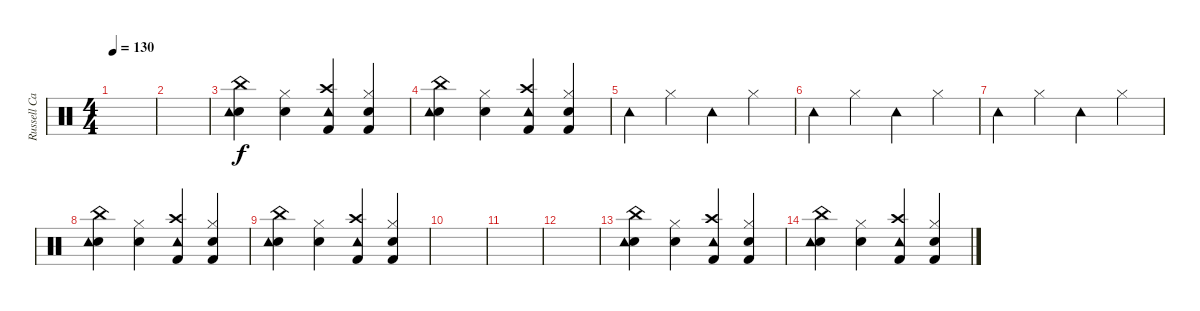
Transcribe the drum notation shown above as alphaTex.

\track ("Russell Cannon" "Russell Ca") {instrument percussion}
\staff {score}
\articulation defaults
\ts (4 4)
\tempo 130
\clef neutral
\ks c
|
|
("Electric Snare (hit)" "China (hit)" "Tambourine (hit)").4 ("Electric Snare (hit)" "Hi-Hat (closed)").4 ("Crash high (hit)" "Kick (hit) 2" "Tambourine (hit)").4 ("Electric Snare (hit)" "Kick (hit) 2" "Hi-Hat (closed)").4 |
("Electric Snare (hit)" "China (hit)" "Tambourine (hit)").4 ("Electric Snare (hit)" "Hi-Hat (closed)").4 ("Crash high (hit)" "Kick (hit) 2" "Tambourine (hit)").4 ("Electric Snare (hit)" "Kick (hit) 2" "Hi-Hat (closed)").4 |
"Tambourine (hit)".4 "Hi-Hat (closed)".4 "Tambourine (hit)".4 "Hi-Hat (closed)".4 |
"Tambourine (hit)".4 "Hi-Hat (closed)".4 "Tambourine (hit)".4 "Hi-Hat (closed)".4 |
"Tambourine (hit)".4 "Hi-Hat (closed)".4 "Tambourine (hit)".4 "Hi-Hat (closed)".4 |
("Electric Snare (hit)" "China (hit)" "Tambourine (hit)").4 ("Electric Snare (hit)" "Hi-Hat (closed)").4 ("Crash high (hit)" "Kick (hit) 2" "Tambourine (hit)").4 ("Electric Snare (hit)" "Kick (hit) 2" "Hi-Hat (closed)").4 |
("Electric Snare (hit)" "China (hit)" "Tambourine (hit)").4 ("Electric Snare (hit)" "Hi-Hat (closed)").4 ("Crash high (hit)" "Kick (hit) 2" "Tambourine (hit)").4 ("Electric Snare (hit)" "Kick (hit) 2" "Hi-Hat (closed)").4 |
|
|
|
("Electric Snare (hit)" "China (hit)" "Tambourine (hit)").4 ("Electric Snare (hit)" "Hi-Hat (closed)").4 ("Crash high (hit)" "Kick (hit) 2" "Tambourine (hit)").4 ("Electric Snare (hit)" "Kick (hit) 2" "Hi-Hat (closed)").4 |
("Electric Snare (hit)" "China (hit)" "Tambourine (hit)").4 ("Electric Snare (hit)" "Hi-Hat (closed)").4 ("Crash high (hit)" "Kick (hit) 2" "Tambourine (hit)").4 ("Electric Snare (hit)" "Kick (hit) 2" "Hi-Hat (closed)").4
